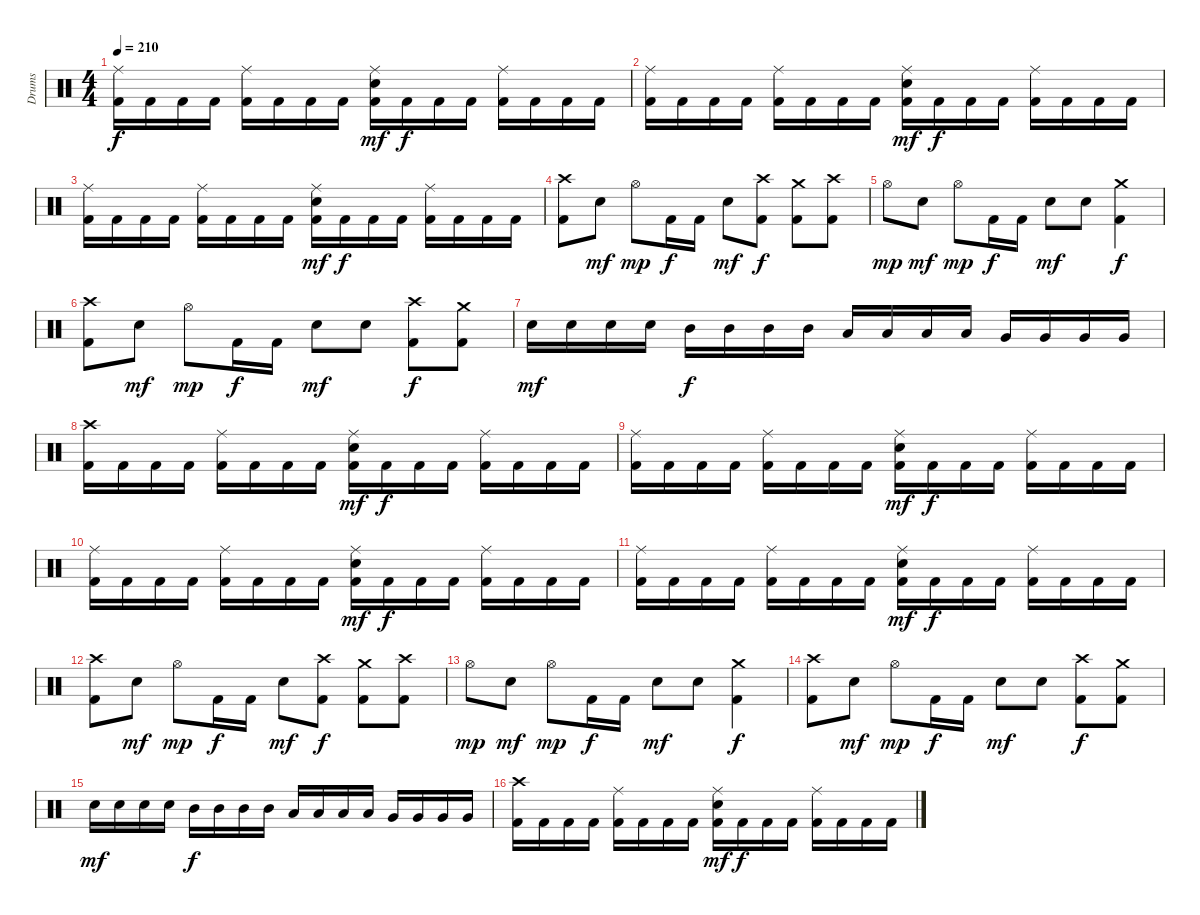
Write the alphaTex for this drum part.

\track ("Drums" "Drums") {instrument percussion}
\staff {score}
\articulation defaults
\ts (4 4)
\tempo 210
\clef neutral
\ks c
("Ride (middle)" "Kick (hit) 2").16{dy f} "Kick (hit) 2".16 "Kick (hit) 2".16 "Kick (hit) 2".16 ("Ride (middle)" "Kick (hit) 2").16 "Kick (hit) 2".16 "Kick (hit) 2".16 "Kick (hit) 2".16 ("Ride (middle)" "Electric Snare (hit)" "Kick (hit) 2").16{dy mf} "Kick (hit) 2".16{dy f} "Kick (hit) 2".16 "Kick (hit) 2".16 ("Ride (middle)" "Kick (hit) 2").16 "Kick (hit) 2".16 "Kick (hit) 2".16 "Kick (hit) 2".16 |
("Ride (middle)" "Kick (hit) 2").16 "Kick (hit) 2".16 "Kick (hit) 2".16 "Kick (hit) 2".16 ("Ride (middle)" "Kick (hit) 2").16 "Kick (hit) 2".16 "Kick (hit) 2".16 "Kick (hit) 2".16 ("Ride (middle)" "Electric Snare (hit)" "Kick (hit) 2").16{dy mf} "Kick (hit) 2".16{dy f} "Kick (hit) 2".16 "Kick (hit) 2".16 ("Ride (middle)" "Kick (hit) 2").16 "Kick (hit) 2".16 "Kick (hit) 2".16 "Kick (hit) 2".16 |
("Ride (middle)" "Kick (hit) 2").16 "Kick (hit) 2".16 "Kick (hit) 2".16 "Kick (hit) 2".16 ("Ride (middle)" "Kick (hit) 2").16 "Kick (hit) 2".16 "Kick (hit) 2".16 "Kick (hit) 2".16 ("Ride (middle)" "Electric Snare (hit)" "Kick (hit) 2").16{dy mf} "Kick (hit) 2".16{dy f} "Kick (hit) 2".16 "Kick (hit) 2".16 ("Ride (middle)" "Kick (hit) 2").16 "Kick (hit) 2".16 "Kick (hit) 2".16 "Kick (hit) 2".16 |
("Crash high (hit)" "Kick (hit) 2").8 "Electric Snare (hit)".8{dy mf} "Hi-Hat (open)".8{dy mp} "Kick (hit) 2".16{dy f} "Kick (hit) 2".16 "Electric Snare (hit)".8{dy mf} ("Crash high (hit)" "Kick (hit) 2").8{dy f} ("Crash medium (hit)" "Kick (hit) 2").8 ("Crash high (hit)" "Kick (hit) 2").8 |
"Hi-Hat (open)".8{dy mp} "Electric Snare (hit)".8{dy mf} "Hi-Hat (open)".8{dy mp} "Kick (hit) 2".16{dy f} "Kick (hit) 2".16 "Electric Snare (hit)".8{dy mf} "Electric Snare (hit)".8 ("Crash medium (hit)" "Kick (hit) 2").4{dy f} |
("Crash high (hit)" "Kick (hit) 2").8 "Electric Snare (hit)".8{dy mf} "Hi-Hat (open)".8{dy mp} "Kick (hit) 2".16{dy f} "Kick (hit) 2".16 "Electric Snare (hit)".8{dy mf} "Electric Snare (hit)".8 ("Crash high (hit)" "Kick (hit) 2").8{dy f} ("Crash medium (hit)" "Kick (hit) 2").8 |
"Electric Snare (hit)".16{dy mf} "Electric Snare (hit)".16 "Electric Snare (hit)".16 "Electric Snare (hit)".16 "Mid Tom (hit)".16{dy f} "Mid Tom (hit)".16 "Mid Tom (hit)".16 "Mid Tom (hit)".16 "Low Tom (hit)".16 "Low Tom (hit)".16 "Low Tom (hit)".16 "Low Tom (hit)".16 "Very Low Tom (hit)".16 "Very Low Tom (hit)".16 "Very Low Tom (hit)".16 "Very Low Tom (hit)".16 |
("Crash high (hit)" "Kick (hit) 2").16 "Kick (hit) 2".16 "Kick (hit) 2".16 "Kick (hit) 2".16 ("Ride (middle)" "Kick (hit) 2").16 "Kick (hit) 2".16 "Kick (hit) 2".16 "Kick (hit) 2".16 ("Ride (middle)" "Electric Snare (hit)" "Kick (hit) 2").16{dy mf} "Kick (hit) 2".16{dy f} "Kick (hit) 2".16 "Kick (hit) 2".16 ("Ride (middle)" "Kick (hit) 2").16 "Kick (hit) 2".16 "Kick (hit) 2".16 "Kick (hit) 2".16 |
("Ride (middle)" "Kick (hit) 2").16 "Kick (hit) 2".16 "Kick (hit) 2".16 "Kick (hit) 2".16 ("Ride (middle)" "Kick (hit) 2").16 "Kick (hit) 2".16 "Kick (hit) 2".16 "Kick (hit) 2".16 ("Ride (middle)" "Electric Snare (hit)" "Kick (hit) 2").16{dy mf} "Kick (hit) 2".16{dy f} "Kick (hit) 2".16 "Kick (hit) 2".16 ("Ride (middle)" "Kick (hit) 2").16 "Kick (hit) 2".16 "Kick (hit) 2".16 "Kick (hit) 2".16 |
("Ride (middle)" "Kick (hit) 2").16 "Kick (hit) 2".16 "Kick (hit) 2".16 "Kick (hit) 2".16 ("Ride (middle)" "Kick (hit) 2").16 "Kick (hit) 2".16 "Kick (hit) 2".16 "Kick (hit) 2".16 ("Ride (middle)" "Electric Snare (hit)" "Kick (hit) 2").16{dy mf} "Kick (hit) 2".16{dy f} "Kick (hit) 2".16 "Kick (hit) 2".16 ("Ride (middle)" "Kick (hit) 2").16 "Kick (hit) 2".16 "Kick (hit) 2".16 "Kick (hit) 2".16 |
("Ride (middle)" "Kick (hit) 2").16 "Kick (hit) 2".16 "Kick (hit) 2".16 "Kick (hit) 2".16 ("Ride (middle)" "Kick (hit) 2").16 "Kick (hit) 2".16 "Kick (hit) 2".16 "Kick (hit) 2".16 ("Ride (middle)" "Electric Snare (hit)" "Kick (hit) 2").16{dy mf} "Kick (hit) 2".16{dy f} "Kick (hit) 2".16 "Kick (hit) 2".16 ("Ride (middle)" "Kick (hit) 2").16 "Kick (hit) 2".16 "Kick (hit) 2".16 "Kick (hit) 2".16 |
("Crash high (hit)" "Kick (hit) 2").8 "Electric Snare (hit)".8{dy mf} "Hi-Hat (open)".8{dy mp} "Kick (hit) 2".16{dy f} "Kick (hit) 2".16 "Electric Snare (hit)".8{dy mf} ("Crash high (hit)" "Kick (hit) 2").8{dy f} ("Crash medium (hit)" "Kick (hit) 2").8 ("Crash high (hit)" "Kick (hit) 2").8 |
"Hi-Hat (open)".8{dy mp} "Electric Snare (hit)".8{dy mf} "Hi-Hat (open)".8{dy mp} "Kick (hit) 2".16{dy f} "Kick (hit) 2".16 "Electric Snare (hit)".8{dy mf} "Electric Snare (hit)".8 ("Crash medium (hit)" "Kick (hit) 2").4{dy f} |
("Crash high (hit)" "Kick (hit) 2").8 "Electric Snare (hit)".8{dy mf} "Hi-Hat (open)".8{dy mp} "Kick (hit) 2".16{dy f} "Kick (hit) 2".16 "Electric Snare (hit)".8{dy mf} "Electric Snare (hit)".8 ("Crash high (hit)" "Kick (hit) 2").8{dy f} ("Crash medium (hit)" "Kick (hit) 2").8 |
"Electric Snare (hit)".16{dy mf} "Electric Snare (hit)".16 "Electric Snare (hit)".16 "Electric Snare (hit)".16 "Mid Tom (hit)".16{dy f} "Mid Tom (hit)".16 "Mid Tom (hit)".16 "Mid Tom (hit)".16 "Low Tom (hit)".16 "Low Tom (hit)".16 "Low Tom (hit)".16 "Low Tom (hit)".16 "Very Low Tom (hit)".16 "Very Low Tom (hit)".16 "Very Low Tom (hit)".16 "Very Low Tom (hit)".16 |
("Crash high (hit)" "Kick (hit) 2").16 "Kick (hit) 2".16 "Kick (hit) 2".16 "Kick (hit) 2".16 ("Ride (middle)" "Kick (hit) 2").16 "Kick (hit) 2".16 "Kick (hit) 2".16 "Kick (hit) 2".16 ("Ride (middle)" "Electric Snare (hit)" "Kick (hit) 2").16{dy mf} "Kick (hit) 2".16{dy f} "Kick (hit) 2".16 "Kick (hit) 2".16 ("Ride (middle)" "Kick (hit) 2").16 "Kick (hit) 2".16 "Kick (hit) 2".16 "Kick (hit) 2".16
